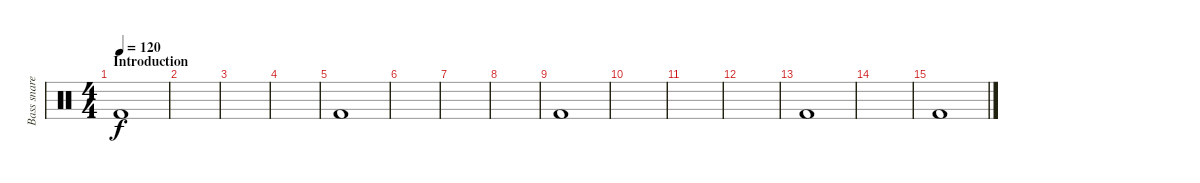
\track ("Bass snare tom" "Bass snare") {instrument percussion}
\staff {score}
\articulation defaults
\ts (4 4)
\section ("" "Introduction")
\tempo 120
\tempo 160
\tempo 120
\clef neutral
\ks c "Kick (hit) 2".1{dy f}
|
|
|
|
"Kick (hit) 2".1 |
|
|
|
"Kick (hit) 2".1 |
|
|
|
"Kick (hit) 2".1 |
|
"Kick (hit) 2".1
